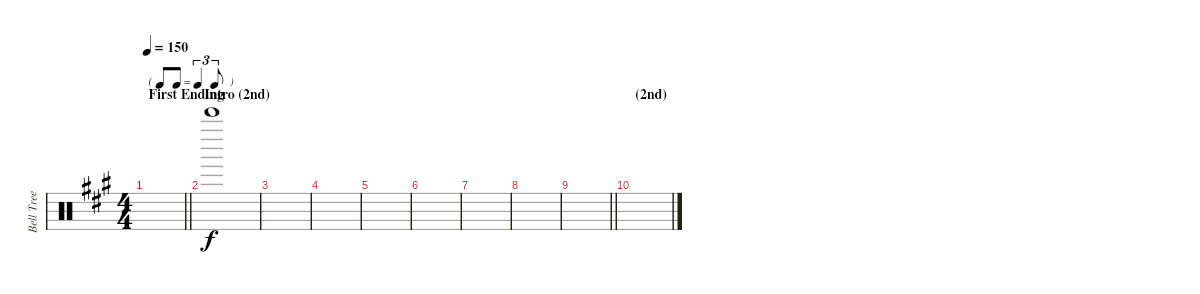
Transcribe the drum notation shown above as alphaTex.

\track ("Bell Tree" "Bell Tree") {instrument percussion}
\staff {score}
\articulation defaults
\ts (4 4)
\tf triplet8th
\section ("" "First Ending")
\tempo 150
\clef neutral
\barLineRight lightlight
\ks a
|
\section ("" "Intro (2nd)")
"Bell Tree (hit)".1 |
|
|
|
|
|
|
\barLineRight lightlight
|
\section ("" "(2nd)")
